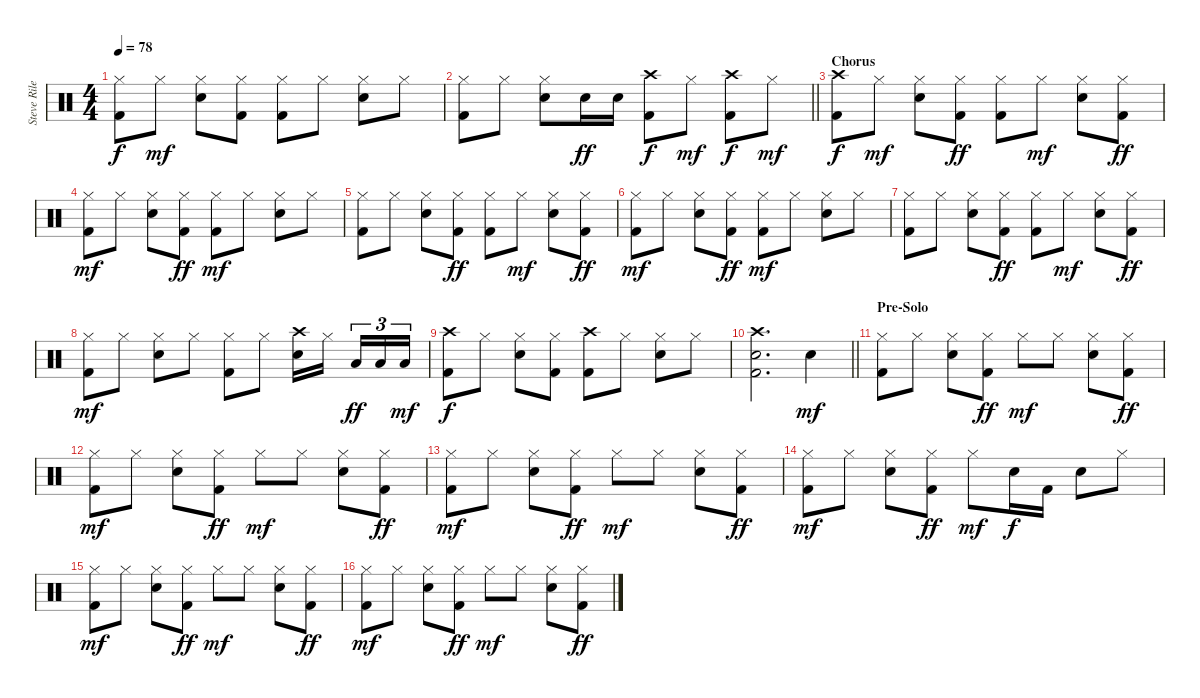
\track ("Steve Riley" "Steve Rile") {instrument percussion}
\staff {score}
\articulation defaults
\ts (4 4)
\tempo 78
\clef neutral
\ks c
("Hi-Hat (closed)" "Kick (hit) 2").8{dy f} "Hi-Hat (closed)".8{dy mf} ("Hi-Hat (closed)" "Electric Snare (hit)").8 ("Hi-Hat (closed)" "Kick (hit) 2").8 ("Hi-Hat (closed)" "Kick (hit) 2").8 "Hi-Hat (closed)".8 ("Hi-Hat (closed)" "Electric Snare (hit)").8 "Hi-Hat (closed)".8 |
\barLineRight lightlight
("Hi-Hat (closed)" "Kick (hit) 2").8 "Hi-Hat (closed)".8 ("Hi-Hat (closed)" "Electric Snare (hit)").8 "Electric Snare (hit)".16{dy ff} "Electric Snare (hit)".16 ("Crash high (hit)" "Kick (hit) 2").8{dy f} "Hi-Hat (closed)".8{dy mf} ("Crash high (hit)" "Kick (hit) 2").8{dy f} "Hi-Hat (closed)".8{dy mf} |
\section ("" "Chorus")
("Crash high (hit)" "Kick (hit) 2").8{dy f} "Hi-Hat (closed)".8{dy mf} ("Hi-Hat (closed)" "Electric Snare (hit)").8 ("Hi-Hat (closed)" "Kick (hit) 2").8{dy ff} ("Hi-Hat (closed)" "Kick (hit) 2").8 "Hi-Hat (closed)".8{dy mf} ("Hi-Hat (closed)" "Electric Snare (hit)").8 ("Hi-Hat (closed)" "Kick (hit) 2").8{dy ff} |
("Hi-Hat (closed)" "Kick (hit) 2").8{dy mf} "Hi-Hat (closed)".8 ("Hi-Hat (closed)" "Electric Snare (hit)").8 ("Hi-Hat (closed)" "Kick (hit) 2").8{dy ff} ("Hi-Hat (closed)" "Kick (hit) 2").8{dy mf} "Hi-Hat (closed)".8 ("Hi-Hat (closed)" "Electric Snare (hit)").8 "Hi-Hat (closed)".8 |
("Hi-Hat (closed)" "Kick (hit) 2").8 "Hi-Hat (closed)".8 ("Hi-Hat (closed)" "Electric Snare (hit)").8 ("Hi-Hat (closed)" "Kick (hit) 2").8{dy ff} ("Hi-Hat (closed)" "Kick (hit) 2").8 "Hi-Hat (closed)".8{dy mf} ("Hi-Hat (closed)" "Electric Snare (hit)").8 ("Hi-Hat (closed)" "Kick (hit) 2").8{dy ff} |
("Hi-Hat (closed)" "Kick (hit) 2").8{dy mf} "Hi-Hat (closed)".8 ("Hi-Hat (closed)" "Electric Snare (hit)").8 ("Hi-Hat (closed)" "Kick (hit) 2").8{dy ff} ("Hi-Hat (closed)" "Kick (hit) 2").8{dy mf} "Hi-Hat (closed)".8 ("Hi-Hat (closed)" "Electric Snare (hit)").8 "Hi-Hat (closed)".8 |
("Hi-Hat (closed)" "Kick (hit) 2").8 "Hi-Hat (closed)".8 ("Hi-Hat (closed)" "Electric Snare (hit)").8 ("Hi-Hat (closed)" "Kick (hit) 2").8{dy ff} ("Hi-Hat (closed)" "Kick (hit) 2").8 "Hi-Hat (closed)".8{dy mf} ("Hi-Hat (closed)" "Electric Snare (hit)").8 ("Hi-Hat (closed)" "Kick (hit) 2").8{dy ff} |
("Hi-Hat (closed)" "Kick (hit) 2").8{dy mf} "Hi-Hat (closed)".8 ("Hi-Hat (closed)" "Electric Snare (hit)").8 "Hi-Hat (closed)".8 ("Hi-Hat (closed)" "Kick (hit) 2").8 "Hi-Hat (closed)".8 ("Crash high (hit)" "Electric Snare (hit)").16 "Hi-Hat (closed)".16{beam splitsecondary} "Low Tom (hit)".16{tu (3 2) dy ff} "Low Tom (hit)".16{tu (3 2)} "Low Tom (hit)".16{tu (3 2) dy mf} |
("Crash high (hit)" "Kick (hit) 2").8{dy f} "Hi-Hat (closed)".8 ("Hi-Hat (closed)" "Electric Snare (hit)").8 ("Hi-Hat (closed)" "Kick (hit) 2").8 ("Crash high (hit)" "Kick (hit) 2").8 "Hi-Hat (closed)".8 ("Hi-Hat (closed)" "Electric Snare (hit)").8 "Hi-Hat (closed)".8 |
\barLineRight lightlight
("Crash high (hit)" "Electric Snare (hit)" "Kick (hit) 2").2{d} "Electric Snare (hit)".4{dy mf} |
\section ("" "Pre-Solo")
("Hi-Hat (closed)" "Kick (hit) 2").8 "Hi-Hat (closed)".8 ("Hi-Hat (closed)" "Electric Snare (hit)").8 ("Hi-Hat (closed)" "Kick (hit) 2").8{dy ff} "Hi-Hat (closed)".8{dy mf} "Hi-Hat (closed)".8 ("Hi-Hat (closed)" "Electric Snare (hit)").8 ("Hi-Hat (closed)" "Kick (hit) 2").8{dy ff} |
("Hi-Hat (closed)" "Kick (hit) 2").8{dy mf} "Hi-Hat (closed)".8 ("Hi-Hat (closed)" "Electric Snare (hit)").8 ("Hi-Hat (closed)" "Kick (hit) 2").8{dy ff} "Hi-Hat (closed)".8{dy mf} "Hi-Hat (closed)".8 ("Hi-Hat (closed)" "Electric Snare (hit)").8 ("Hi-Hat (closed)" "Kick (hit) 2").8{dy ff} |
("Hi-Hat (closed)" "Kick (hit) 2").8{dy mf} "Hi-Hat (closed)".8 ("Hi-Hat (closed)" "Electric Snare (hit)").8 ("Hi-Hat (closed)" "Kick (hit) 2").8{dy ff} "Hi-Hat (closed)".8{dy mf} "Hi-Hat (closed)".8 ("Hi-Hat (closed)" "Electric Snare (hit)").8 ("Hi-Hat (closed)" "Kick (hit) 2").8{dy ff} |
("Hi-Hat (closed)" "Kick (hit) 2").8{dy mf} "Hi-Hat (closed)".8 ("Hi-Hat (closed)" "Electric Snare (hit)").8 ("Hi-Hat (closed)" "Kick (hit) 2").8{dy ff} "Hi-Hat (closed)".8{dy mf} "Electric Snare (hit)".16{dy f} "Kick (hit) 2".16 "Electric Snare (hit)".8 "Hi-Hat (closed)".8 |
("Hi-Hat (closed)" "Kick (hit) 2").8{dy mf} "Hi-Hat (closed)".8 ("Hi-Hat (closed)" "Electric Snare (hit)").8 ("Hi-Hat (closed)" "Kick (hit) 2").8{dy ff} "Hi-Hat (closed)".8{dy mf} "Hi-Hat (closed)".8 ("Hi-Hat (closed)" "Electric Snare (hit)").8 ("Hi-Hat (closed)" "Kick (hit) 2").8{dy ff} |
("Hi-Hat (closed)" "Kick (hit) 2").8{dy mf} "Hi-Hat (closed)".8 ("Hi-Hat (closed)" "Electric Snare (hit)").8 ("Hi-Hat (closed)" "Kick (hit) 2").8{dy ff} "Hi-Hat (closed)".8{dy mf} "Hi-Hat (closed)".8 ("Hi-Hat (closed)" "Electric Snare (hit)").8 ("Hi-Hat (closed)" "Kick (hit) 2").8{dy ff}
